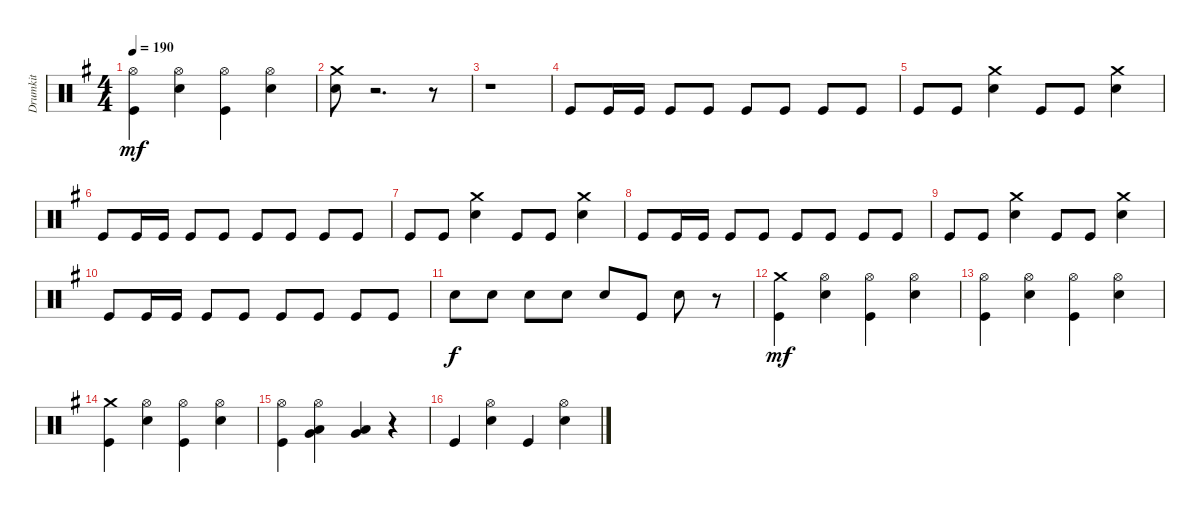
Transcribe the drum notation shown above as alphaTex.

\track ("Drumkit" "Drumkit") {instrument percussion}
\staff {score}
\articulation defaults
\ts (4 4)
\tempo 190
\clef neutral
\ks eminor
("Kick (hit)" "Hi-Hat (open)").4{dy mf} ("Snare (hit) 2" "Hi-Hat (open)").4 ("Kick (hit)" "Hi-Hat (open)").4 ("Snare (hit) 2" "Hi-Hat (open)").4 |
("Snare (hit) 2" "Crash medium (hit)").8 r.2{d} r.8 |
r.1 |
"Kick (hit)".8 "Kick (hit)".16 "Kick (hit)".16 "Kick (hit)".8 "Kick (hit)".8 "Kick (hit)".8 "Kick (hit)".8 "Kick (hit)".8 "Kick (hit)".8 |
"Kick (hit)".8 "Kick (hit)".8 ("Snare (hit) 2" "Crash medium (hit)").4 "Kick (hit)".8 "Kick (hit)".8 ("Snare (hit) 2" "Crash medium (hit)").4 |
"Kick (hit)".8 "Kick (hit)".16 "Kick (hit)".16 "Kick (hit)".8 "Kick (hit)".8 "Kick (hit)".8 "Kick (hit)".8 "Kick (hit)".8 "Kick (hit)".8 |
"Kick (hit)".8 "Kick (hit)".8 ("Snare (hit) 2" "Crash medium (hit)").4 "Kick (hit)".8 "Kick (hit)".8 ("Snare (hit) 2" "Crash medium (hit)").4 |
"Kick (hit)".8 "Kick (hit)".16 "Kick (hit)".16 "Kick (hit)".8 "Kick (hit)".8 "Kick (hit)".8 "Kick (hit)".8 "Kick (hit)".8 "Kick (hit)".8 |
"Kick (hit)".8 "Kick (hit)".8 ("Snare (hit) 2" "Crash medium (hit)").4 "Kick (hit)".8 "Kick (hit)".8 ("Snare (hit) 2" "Crash medium (hit)").4 |
"Kick (hit)".8 "Kick (hit)".16 "Kick (hit)".16 "Kick (hit)".8 "Kick (hit)".8 "Kick (hit)".8 "Kick (hit)".8 "Kick (hit)".8 "Kick (hit)".8 |
"Snare (hit) 2".8{dy f} "Snare (hit) 2".8 "Snare (hit) 2".8 "Snare (hit) 2".8 "Snare (hit) 2".8 "Kick (hit)".8 "Snare (hit) 2".8 r.8 |
("Kick (hit)" "Crash medium (hit)").4{dy mf} ("Snare (hit) 2" "Hi-Hat (open)").4 ("Kick (hit)" "Hi-Hat (open)").4 ("Snare (hit) 2" "Hi-Hat (open)").4 |
("Kick (hit)" "Hi-Hat (open)").4 ("Snare (hit) 2" "Hi-Hat (open)").4 ("Kick (hit)" "Hi-Hat (open)").4 ("Snare (hit) 2" "Hi-Hat (open)").4 |
("Kick (hit)" "Crash medium (hit)").4 ("Snare (hit) 2" "Hi-Hat (open)").4 ("Kick (hit)" "Hi-Hat (open)").4 ("Snare (hit) 2" "Hi-Hat (open)").4 |
("Kick (hit)" "Hi-Hat (open)").4 ("Hi-Hat (open)" "Low Tom (hit)" "Very Low Tom (hit)").4 ("Low Tom (hit)" "Very Low Tom (hit)").4 r.4 |
"Kick (hit)".4 ("Snare (hit) 2" "Hi-Hat (open)").4 "Kick (hit)".4 ("Snare (hit) 2" "Hi-Hat (open)").4
